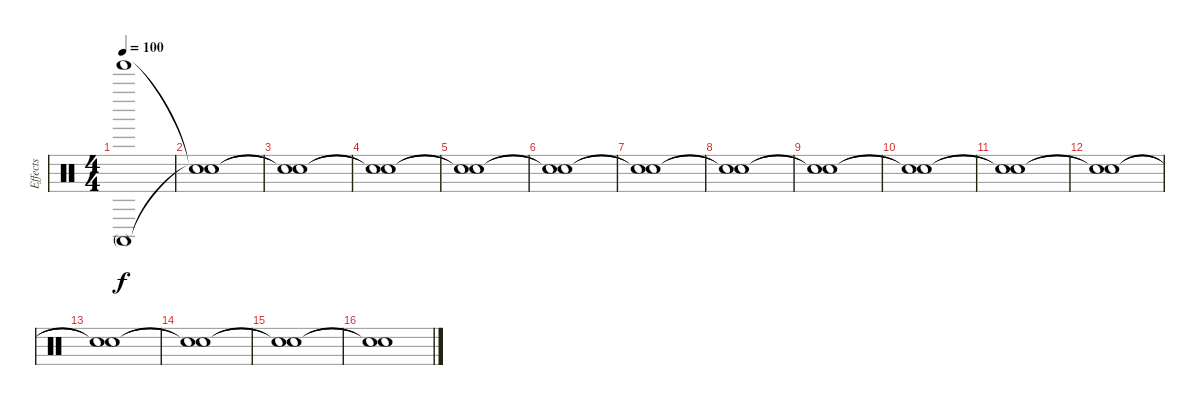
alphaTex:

\track ("Effects" "Effects") {instrument percussion}
\staff {score}
\articulation defaults
\ts (4 4)
\tempo 100
\clef neutral
\ks c
("Conga high (mute)" "Tinkle Bell (hit)").1{dy f} |
("Snare (hit)"{t} "Snare (hit)"{t}).1 |
("Snare (hit)"{t} "Snare (hit)"{t}).1 |
("Snare (hit)"{t} "Snare (hit)"{t}).1 |
("Snare (hit)"{t} "Snare (hit)"{t}).1 |
("Snare (hit)"{t} "Snare (hit)"{t}).1 |
("Snare (hit)"{t} "Snare (hit)"{t}).1 |
("Snare (hit)"{t} "Snare (hit)"{t}).1 |
("Snare (hit)"{t} "Snare (hit)"{t}).1 |
("Snare (hit)"{t} "Snare (hit)"{t}).1 |
("Snare (hit)"{t} "Snare (hit)"{t}).1 |
("Snare (hit)"{t} "Snare (hit)"{t}).1 |
("Snare (hit)"{t} "Snare (hit)"{t}).1 |
("Snare (hit)"{t} "Snare (hit)"{t}).1 |
("Snare (hit)"{t} "Snare (hit)"{t}).1 |
("Snare (hit)"{t} "Snare (hit)"{t}).1
